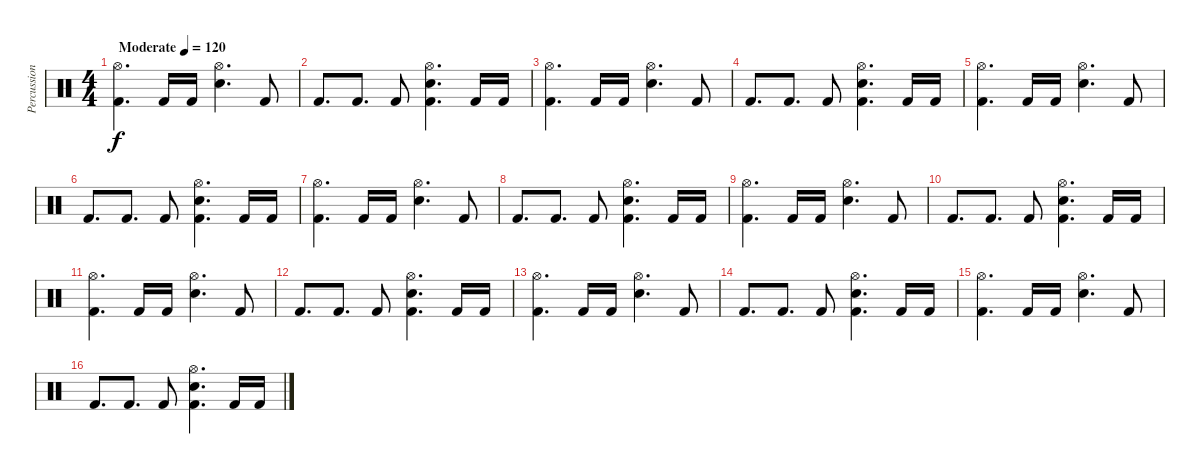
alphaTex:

\track ("Percussions" "Percussion") {instrument percussion}
\staff {score}
\articulation defaults
\ts (4 4)
\tempo (120 "Moderate")
\clef neutral
\ks c
("Hi-Hat (open)" "Kick (hit) 2").4{d dy f} "Kick (hit) 2".16 "Kick (hit) 2".16 ("Hi-Hat (open)" "Snare (hit) 2").4{d} "Kick (hit) 2".8 |
"Kick (hit) 2".8{d} "Kick (hit) 2".8{d} "Kick (hit) 2".8 ("Hi-Hat (open)" "Kick (hit) 2" "Snare (hit) 2").4{d} "Kick (hit) 2".16 "Kick (hit) 2".16 |
("Hi-Hat (open)" "Kick (hit) 2").4{d} "Kick (hit) 2".16 "Kick (hit) 2".16 ("Hi-Hat (open)" "Snare (hit) 2").4{d} "Kick (hit) 2".8 |
"Kick (hit) 2".8{d} "Kick (hit) 2".8{d} "Kick (hit) 2".8 ("Hi-Hat (open)" "Kick (hit) 2" "Snare (hit) 2").4{d} "Kick (hit) 2".16 "Kick (hit) 2".16 |
("Hi-Hat (open)" "Kick (hit) 2").4{d} "Kick (hit) 2".16 "Kick (hit) 2".16 ("Hi-Hat (open)" "Snare (hit) 2").4{d} "Kick (hit) 2".8 |
"Kick (hit) 2".8{d} "Kick (hit) 2".8{d} "Kick (hit) 2".8 ("Hi-Hat (open)" "Kick (hit) 2" "Snare (hit) 2").4{d} "Kick (hit) 2".16 "Kick (hit) 2".16 |
("Hi-Hat (open)" "Kick (hit) 2").4{d} "Kick (hit) 2".16 "Kick (hit) 2".16 ("Hi-Hat (open)" "Snare (hit) 2").4{d} "Kick (hit) 2".8 |
"Kick (hit) 2".8{d} "Kick (hit) 2".8{d} "Kick (hit) 2".8 ("Hi-Hat (open)" "Kick (hit) 2" "Snare (hit) 2").4{d} "Kick (hit) 2".16 "Kick (hit) 2".16 |
("Hi-Hat (open)" "Kick (hit) 2").4{d} "Kick (hit) 2".16 "Kick (hit) 2".16 ("Hi-Hat (open)" "Snare (hit) 2").4{d} "Kick (hit) 2".8 |
"Kick (hit) 2".8{d} "Kick (hit) 2".8{d} "Kick (hit) 2".8 ("Hi-Hat (open)" "Kick (hit) 2" "Snare (hit) 2").4{d} "Kick (hit) 2".16 "Kick (hit) 2".16 |
("Hi-Hat (open)" "Kick (hit) 2").4{d} "Kick (hit) 2".16 "Kick (hit) 2".16 ("Hi-Hat (open)" "Snare (hit) 2").4{d} "Kick (hit) 2".8 |
"Kick (hit) 2".8{d} "Kick (hit) 2".8{d} "Kick (hit) 2".8 ("Hi-Hat (open)" "Kick (hit) 2" "Snare (hit) 2").4{d} "Kick (hit) 2".16 "Kick (hit) 2".16 |
("Hi-Hat (open)" "Kick (hit) 2").4{d} "Kick (hit) 2".16 "Kick (hit) 2".16 ("Hi-Hat (open)" "Snare (hit) 2").4{d} "Kick (hit) 2".8 |
"Kick (hit) 2".8{d} "Kick (hit) 2".8{d} "Kick (hit) 2".8 ("Hi-Hat (open)" "Kick (hit) 2" "Snare (hit) 2").4{d} "Kick (hit) 2".16 "Kick (hit) 2".16 |
("Hi-Hat (open)" "Kick (hit) 2").4{d} "Kick (hit) 2".16 "Kick (hit) 2".16 ("Hi-Hat (open)" "Snare (hit) 2").4{d} "Kick (hit) 2".8 |
"Kick (hit) 2".8{d} "Kick (hit) 2".8{d} "Kick (hit) 2".8 ("Hi-Hat (open)" "Kick (hit) 2" "Snare (hit) 2").4{d} "Kick (hit) 2".16 "Kick (hit) 2".16
